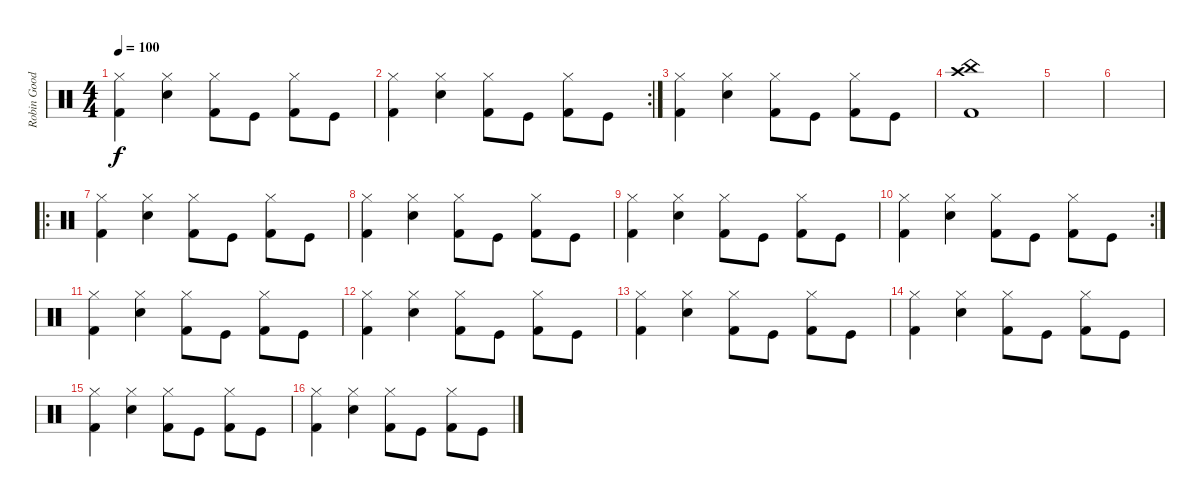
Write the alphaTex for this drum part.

\track ("Robin Goodridge - Drums " "Robin Good") {instrument percussion}
\staff {score}
\articulation defaults
\ts (4 4)
\tempo 100
\clef neutral
\ks c
("Hi-Hat (closed)" "Kick (hit) 2").4{dy f} ("Hi-Hat (closed)" "Snare (hit) 2").4 ("Hi-Hat (closed)" "Kick (hit) 2").8 "Kick (hit)".8 ("Hi-Hat (closed)" "Kick (hit) 2").8 "Kick (hit)".8 |
\rc 2
("Hi-Hat (closed)" "Kick (hit) 2").4 ("Hi-Hat (closed)" "Snare (hit) 2").4 ("Hi-Hat (closed)" "Kick (hit) 2").8 "Kick (hit)".8 ("Hi-Hat (closed)" "Kick (hit) 2").8 "Kick (hit)".8 |
("Hi-Hat (closed)" "Kick (hit) 2").4 ("Hi-Hat (closed)" "Snare (hit) 2").4 ("Hi-Hat (closed)" "Kick (hit) 2").8 "Kick (hit)".8 ("Hi-Hat (closed)" "Kick (hit) 2").8 "Kick (hit)".8 |
("Crash high (hit)" "China (hit)" "Kick (hit) 2").1 |
|
|
\ro
("Hi-Hat (closed)" "Kick (hit) 2").4 ("Hi-Hat (closed)" "Snare (hit) 2").4 ("Hi-Hat (closed)" "Kick (hit) 2").8 "Kick (hit)".8 ("Hi-Hat (closed)" "Kick (hit) 2").8 "Kick (hit)".8 |
("Hi-Hat (closed)" "Kick (hit) 2").4 ("Hi-Hat (closed)" "Snare (hit) 2").4 ("Hi-Hat (closed)" "Kick (hit) 2").8 "Kick (hit)".8 ("Hi-Hat (closed)" "Kick (hit) 2").8 "Kick (hit)".8 |
("Hi-Hat (closed)" "Kick (hit) 2").4 ("Hi-Hat (closed)" "Snare (hit) 2").4 ("Hi-Hat (closed)" "Kick (hit) 2").8 "Kick (hit)".8 ("Hi-Hat (closed)" "Kick (hit) 2").8 "Kick (hit)".8 |
\rc 2
("Hi-Hat (closed)" "Kick (hit) 2").4 ("Hi-Hat (closed)" "Snare (hit) 2").4 ("Hi-Hat (closed)" "Kick (hit) 2").8 "Kick (hit)".8 ("Hi-Hat (closed)" "Kick (hit) 2").8 "Kick (hit)".8 |
("Hi-Hat (closed)" "Kick (hit) 2").4 ("Hi-Hat (closed)" "Snare (hit) 2").4 ("Hi-Hat (closed)" "Kick (hit) 2").8 "Kick (hit)".8 ("Hi-Hat (closed)" "Kick (hit) 2").8 "Kick (hit)".8 |
("Hi-Hat (closed)" "Kick (hit) 2").4 ("Hi-Hat (closed)" "Snare (hit) 2").4 ("Hi-Hat (closed)" "Kick (hit) 2").8 "Kick (hit)".8 ("Hi-Hat (closed)" "Kick (hit) 2").8 "Kick (hit)".8 |
("Hi-Hat (closed)" "Kick (hit) 2").4 ("Hi-Hat (closed)" "Snare (hit) 2").4 ("Hi-Hat (closed)" "Kick (hit) 2").8 "Kick (hit)".8 ("Hi-Hat (closed)" "Kick (hit) 2").8 "Kick (hit)".8 |
("Hi-Hat (closed)" "Kick (hit) 2").4 ("Hi-Hat (closed)" "Snare (hit) 2").4 ("Hi-Hat (closed)" "Kick (hit) 2").8 "Kick (hit)".8 ("Hi-Hat (closed)" "Kick (hit) 2").8 "Kick (hit)".8 |
("Hi-Hat (closed)" "Kick (hit) 2").4 ("Hi-Hat (closed)" "Snare (hit) 2").4 ("Hi-Hat (closed)" "Kick (hit) 2").8 "Kick (hit)".8 ("Hi-Hat (closed)" "Kick (hit) 2").8 "Kick (hit)".8 |
("Hi-Hat (closed)" "Kick (hit) 2").4 ("Hi-Hat (closed)" "Snare (hit) 2").4 ("Hi-Hat (closed)" "Kick (hit) 2").8 "Kick (hit)".8 ("Hi-Hat (closed)" "Kick (hit) 2").8 "Kick (hit)".8
